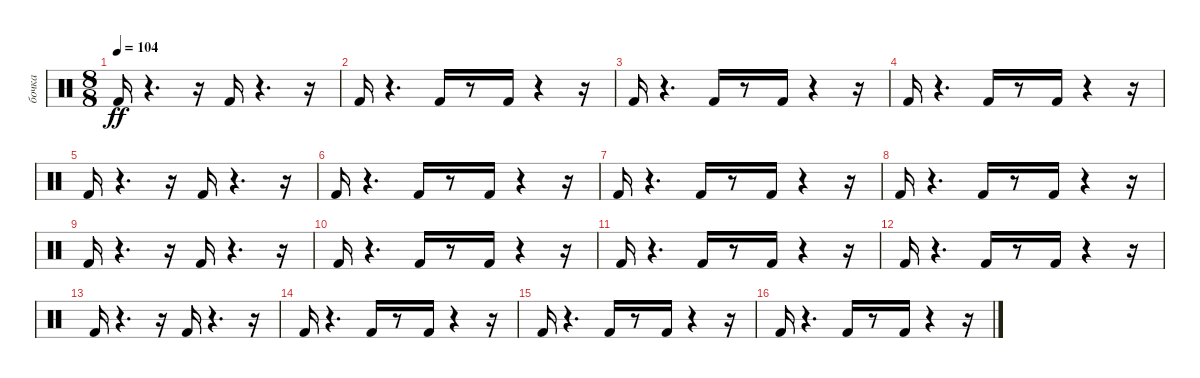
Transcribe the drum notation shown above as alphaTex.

\track ("бочка" "бочка") {instrument percussion}
\staff {score}
\articulation defaults
\ts (8 8)
\tempo 104
\clef neutral
\ks c "Kick (hit) 2".16{dy ff}
r.4{d} r.16 "Kick (hit) 2".16 r.4{d} r.16 |
"Kick (hit) 2".16 r.4{d} "Kick (hit) 2".16 r.8 "Kick (hit) 2".16 r.4 r.16 |
"Kick (hit) 2".16 r.4{d} "Kick (hit) 2".16 r.8 "Kick (hit) 2".16 r.4 r.16 |
"Kick (hit) 2".16 r.4{d} "Kick (hit) 2".16 r.8 "Kick (hit) 2".16 r.4 r.16 |
"Kick (hit) 2".16 r.4{d} r.16 "Kick (hit) 2".16 r.4{d} r.16 |
"Kick (hit) 2".16 r.4{d} "Kick (hit) 2".16 r.8 "Kick (hit) 2".16 r.4 r.16 |
"Kick (hit) 2".16 r.4{d} "Kick (hit) 2".16 r.8 "Kick (hit) 2".16 r.4 r.16 |
"Kick (hit) 2".16 r.4{d} "Kick (hit) 2".16 r.8 "Kick (hit) 2".16 r.4 r.16 |
"Kick (hit) 2".16 r.4{d} r.16 "Kick (hit) 2".16 r.4{d} r.16 |
"Kick (hit) 2".16 r.4{d} "Kick (hit) 2".16 r.8 "Kick (hit) 2".16 r.4 r.16 |
"Kick (hit) 2".16 r.4{d} "Kick (hit) 2".16 r.8 "Kick (hit) 2".16 r.4 r.16 |
"Kick (hit) 2".16 r.4{d} "Kick (hit) 2".16 r.8 "Kick (hit) 2".16 r.4 r.16 |
"Kick (hit) 2".16 r.4{d} r.16 "Kick (hit) 2".16 r.4{d} r.16 |
"Kick (hit) 2".16 r.4{d} "Kick (hit) 2".16 r.8 "Kick (hit) 2".16 r.4 r.16 |
"Kick (hit) 2".16 r.4{d} "Kick (hit) 2".16 r.8 "Kick (hit) 2".16 r.4 r.16 |
"Kick (hit) 2".16 r.4{d} "Kick (hit) 2".16 r.8 "Kick (hit) 2".16 r.4 r.16
